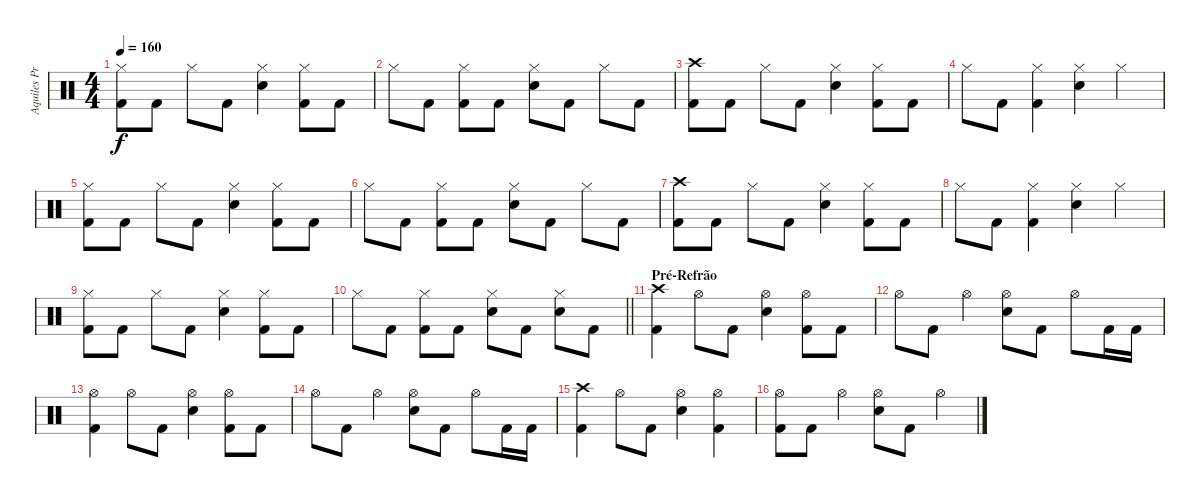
\track ("Aquiles Priester" "Aquiles Pr") {instrument percussion}
\staff {score}
\articulation defaults
\ts (4 4)
\tempo 160
\clef neutral
\ks c
("Hi-Hat (closed)" "Kick (hit) 2").8{dy f} "Kick (hit) 2".8 "Hi-Hat (closed)".8 "Kick (hit) 2".8 ("Hi-Hat (closed)" "Electric Snare (hit)").4 ("Hi-Hat (closed)" "Kick (hit) 2").8 "Kick (hit) 2".8 |
"Hi-Hat (closed)".8 "Kick (hit) 2".8 ("Hi-Hat (closed)" "Kick (hit) 2").8 "Kick (hit) 2".8 ("Hi-Hat (closed)" "Electric Snare (hit)").8 "Kick (hit) 2".8 "Hi-Hat (closed)".8 "Kick (hit) 2".8 |
("Crash high (hit)" "Kick (hit) 2").8 "Kick (hit) 2".8 "Hi-Hat (closed)".8 "Kick (hit) 2".8 ("Hi-Hat (closed)" "Electric Snare (hit)").4 ("Hi-Hat (closed)" "Kick (hit) 2").8 "Kick (hit) 2".8 |
"Hi-Hat (closed)".8 "Kick (hit) 2".8 ("Hi-Hat (closed)" "Kick (hit) 2").4 ("Hi-Hat (closed)" "Electric Snare (hit)").4 "Hi-Hat (closed)".4 |
("Hi-Hat (closed)" "Kick (hit) 2").8 "Kick (hit) 2".8 "Hi-Hat (closed)".8 "Kick (hit) 2".8 ("Hi-Hat (closed)" "Electric Snare (hit)").4 ("Hi-Hat (closed)" "Kick (hit) 2").8 "Kick (hit) 2".8 |
"Hi-Hat (closed)".8 "Kick (hit) 2".8 ("Hi-Hat (closed)" "Kick (hit) 2").8 "Kick (hit) 2".8 ("Hi-Hat (closed)" "Electric Snare (hit)").8 "Kick (hit) 2".8 "Hi-Hat (closed)".8 "Kick (hit) 2".8 |
("Crash high (hit)" "Kick (hit) 2").8 "Kick (hit) 2".8 "Hi-Hat (closed)".8 "Kick (hit) 2".8 ("Hi-Hat (closed)" "Electric Snare (hit)").4 ("Hi-Hat (closed)" "Kick (hit) 2").8 "Kick (hit) 2".8 |
"Hi-Hat (closed)".8 "Kick (hit) 2".8 ("Hi-Hat (closed)" "Kick (hit) 2").4 ("Hi-Hat (closed)" "Electric Snare (hit)").4 "Hi-Hat (closed)".4 |
("Hi-Hat (closed)" "Kick (hit) 2").8 "Kick (hit) 2".8 "Hi-Hat (closed)".8 "Kick (hit) 2".8 ("Hi-Hat (closed)" "Electric Snare (hit)").4 ("Hi-Hat (closed)" "Kick (hit) 2").8 "Kick (hit) 2".8 |
\barLineRight lightlight "Hi-Hat (closed)".8 "Kick (hit) 2".8
("Hi-Hat (closed)" "Kick (hit) 2").8 "Kick (hit) 2".8 ("Hi-Hat (closed)" "Electric Snare (hit)").8 "Kick (hit) 2".8 ("Hi-Hat (closed)" "Electric Snare (hit)").8 "Kick (hit) 2".8 |
\section ("" "Pré-Refrão")
("Crash high (hit)" "Kick (hit) 2").4 "Hi-Hat (open)".8 "Kick (hit) 2".8 ("Hi-Hat (open)" "Electric Snare (hit)").4 ("Hi-Hat (open)" "Kick (hit) 2").8 "Kick (hit) 2".8 |
"Hi-Hat (open)".8 "Kick (hit) 2".8 "Hi-Hat (open)".4 ("Hi-Hat (open)" "Electric Snare (hit)").8 "Kick (hit) 2".8 "Hi-Hat (open)".8 "Kick (hit) 2".16 "Kick (hit) 2".16 |
("Hi-Hat (open)" "Kick (hit) 2").4 "Hi-Hat (open)".8 "Kick (hit) 2".8 ("Hi-Hat (open)" "Electric Snare (hit)").4 ("Hi-Hat (open)" "Kick (hit) 2").8 "Kick (hit) 2".8 |
"Hi-Hat (open)".8 "Kick (hit) 2".8 "Hi-Hat (open)".4 ("Hi-Hat (open)" "Electric Snare (hit)").8 "Kick (hit) 2".8 "Hi-Hat (open)".8 "Kick (hit) 2".16 "Kick (hit) 2".16 |
("Crash high (hit)" "Kick (hit) 2").4 "Hi-Hat (open)".8 "Kick (hit) 2".8 ("Hi-Hat (open)" "Electric Snare (hit)").4 ("Hi-Hat (open)" "Kick (hit) 2").4 |
("Hi-Hat (open)" "Kick (hit) 2").8 "Kick (hit) 2".8 "Hi-Hat (open)".4 ("Hi-Hat (open)" "Electric Snare (hit)").8 "Kick (hit) 2".8 "Hi-Hat (open)".4
